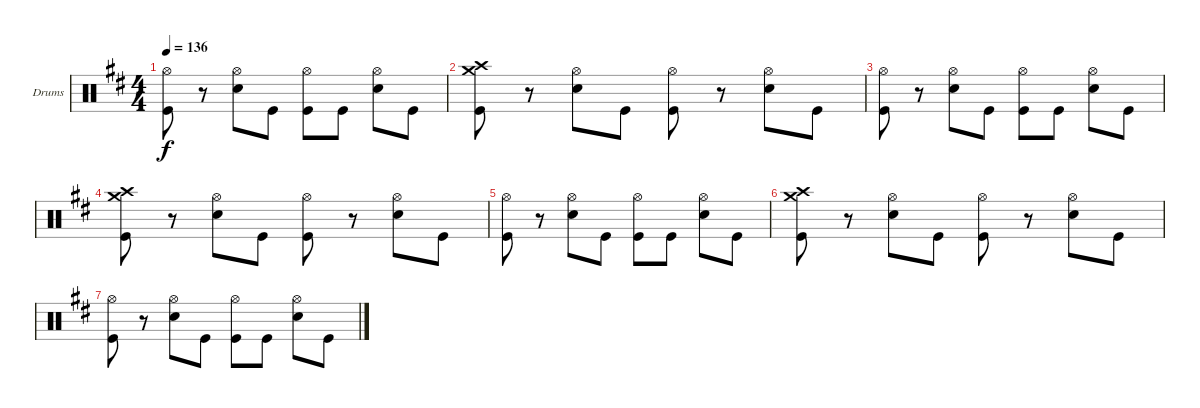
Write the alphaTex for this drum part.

\defaultSystemsLayout 4
\bracketExtendMode groupsimilarinstruments
\firstSystemTrackNameOrientation horizontal
\otherSystemsTrackNameOrientation horizontal
\track ("Drumkit" "Drums") {instrument percussion}
\staff {score}
\articulation defaults
\ts (4 4)
\tempo 136
\clef neutral
\scale
1.05044
\ks d
("Hi-Hat (open)" "Kick (hit)").8{dy f} r.8 ("Hi-Hat (open)" "Snare (hit) 2").8 "Kick (hit)".8 ("Hi-Hat (open)" "Kick (hit)").8 "Kick (hit)".8 ("Hi-Hat (open)" "Snare (hit) 2").8 "Kick (hit)".8 |
\scale
0.949559 ("Crash high (hit)" "Crash medium (hit)" "Kick (hit)").8 r.8 ("Hi-Hat (open)" "Snare (hit) 2").8 "Kick (hit)".8 ("Hi-Hat (open)" "Kick (hit)").8 r.8 ("Hi-Hat (open)" "Snare (hit) 2").8 "Kick (hit)".8 |
\scale
1.05044 ("Hi-Hat (open)" "Kick (hit)").8 r.8 ("Hi-Hat (open)" "Snare (hit) 2").8 "Kick (hit)".8 ("Hi-Hat (open)" "Kick (hit)").8 "Kick (hit)".8 ("Hi-Hat (open)" "Snare (hit) 2").8 "Kick (hit)".8 |
\scale
0.949559 ("Crash high (hit)" "Crash medium (hit)" "Kick (hit)").8 r.8 ("Hi-Hat (open)" "Snare (hit) 2").8 "Kick (hit)".8 ("Hi-Hat (open)" "Kick (hit)").8 r.8 ("Hi-Hat (open)" "Snare (hit) 2").8 "Kick (hit)".8 |
\scale
1.05044 ("Hi-Hat (open)" "Kick (hit)").8 r.8 ("Hi-Hat (open)" "Snare (hit) 2").8 "Kick (hit)".8 ("Hi-Hat (open)" "Kick (hit)").8 "Kick (hit)".8 ("Hi-Hat (open)" "Snare (hit) 2").8 "Kick (hit)".8 |
\scale
0.949559 ("Crash high (hit)" "Crash medium (hit)" "Kick (hit)").8 r.8 ("Hi-Hat (open)" "Snare (hit) 2").8 "Kick (hit)".8 ("Hi-Hat (open)" "Kick (hit)").8 r.8 ("Hi-Hat (open)" "Snare (hit) 2").8 "Kick (hit)".8 |
("Hi-Hat (open)" "Kick (hit)").8 r.8 ("Hi-Hat (open)" "Snare (hit) 2").8 "Kick (hit)".8 ("Hi-Hat (open)" "Kick (hit)").8 "Kick (hit)".8 ("Hi-Hat (open)" "Snare (hit) 2").8 "Kick (hit)".8
